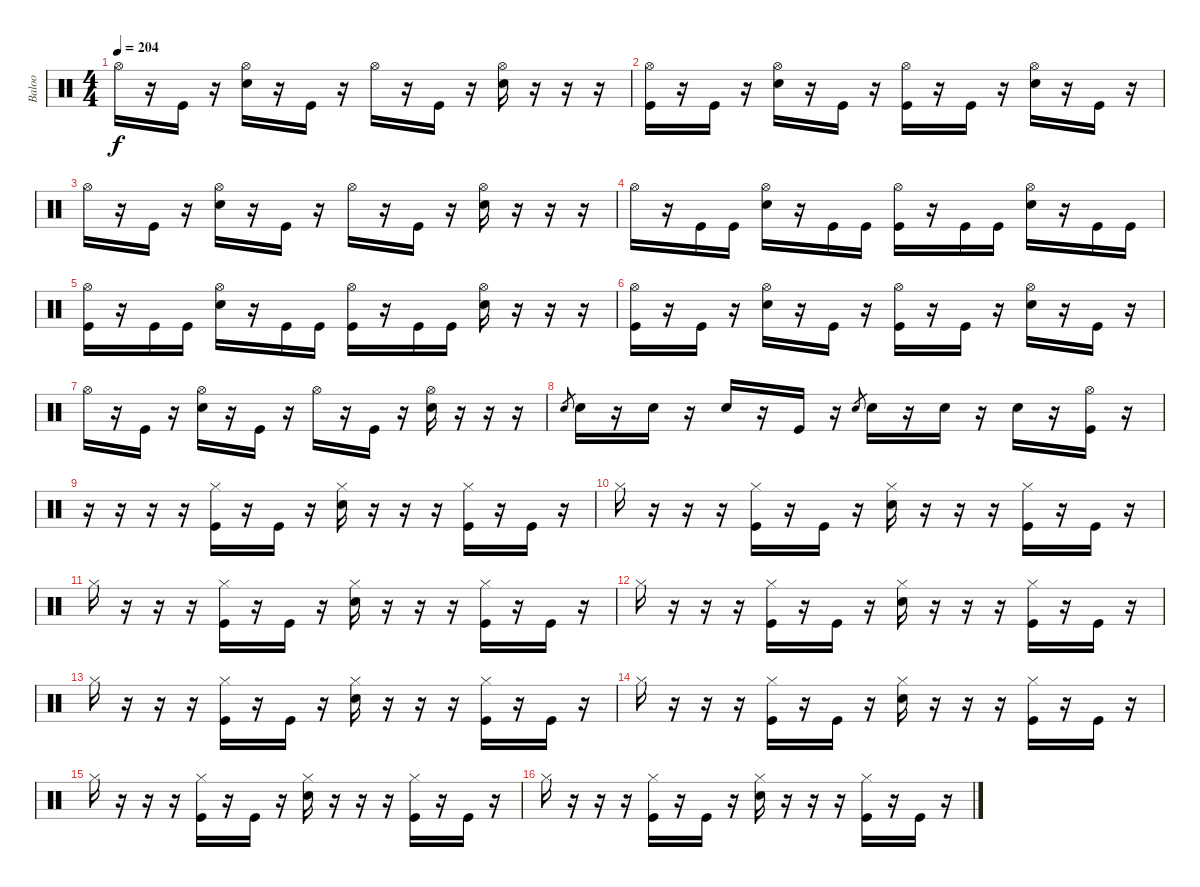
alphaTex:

\track ("Baloo" "Baloo") {instrument percussion}
\staff {score}
\articulation defaults
\ts (4 4)
\tempo 204
\clef neutral
\ks c "Hi-Hat (open)".16{dy f}
r.16 "Kick (hit)".16 r.16 ("Hi-Hat (open)" "Electric Snare (hit)").16 r.16 "Kick (hit)".16 r.16 "Hi-Hat (open)".16 r.16 "Kick (hit)".16 r.16 ("Hi-Hat (open)" "Electric Snare (hit)").16 r.16 r.16 r.16 |
("Hi-Hat (open)" "Kick (hit)").16 r.16 "Kick (hit)".16 r.16 ("Hi-Hat (open)" "Electric Snare (hit)").16 r.16 "Kick (hit)".16 r.16 ("Hi-Hat (open)" "Kick (hit)").16 r.16 "Kick (hit)".16 r.16 ("Hi-Hat (open)" "Electric Snare (hit)").16 r.16 "Kick (hit)".16 r.16 |
"Hi-Hat (open)".16 r.16 "Kick (hit)".16 r.16 ("Hi-Hat (open)" "Electric Snare (hit)").16 r.16 "Kick (hit)".16 r.16 "Hi-Hat (open)".16 r.16 "Kick (hit)".16 r.16 ("Hi-Hat (open)" "Electric Snare (hit)").16 r.16 r.16 r.16 |
"Hi-Hat (open)".16 r.16 "Kick (hit)".16 "Kick (hit)".16 ("Hi-Hat (open)" "Electric Snare (hit)").16 r.16 "Kick (hit)".16 "Kick (hit)".16 ("Hi-Hat (open)" "Kick (hit)").16 r.16 "Kick (hit)".16 "Kick (hit)".16 ("Hi-Hat (open)" "Electric Snare (hit)").16 r.16 "Kick (hit)".16 "Kick (hit)".16 |
("Hi-Hat (open)" "Kick (hit)").16 r.16 "Kick (hit)".16 "Kick (hit)".16 ("Hi-Hat (open)" "Electric Snare (hit)").16 r.16 "Kick (hit)".16 "Kick (hit)".16 ("Hi-Hat (open)" "Kick (hit)").16 r.16 "Kick (hit)".16 "Kick (hit)".16 ("Hi-Hat (open)" "Electric Snare (hit)").16 r.16 r.16 r.16 |
("Hi-Hat (open)" "Kick (hit)").16 r.16 "Kick (hit)".16 r.16 ("Hi-Hat (open)" "Electric Snare (hit)").16 r.16 "Kick (hit)".16 r.16 ("Hi-Hat (open)" "Kick (hit)").16 r.16 "Kick (hit)".16 r.16 ("Hi-Hat (open)" "Electric Snare (hit)").16 r.16 "Kick (hit)".16 r.16 |
"Hi-Hat (open)".16 r.16 "Kick (hit)".16 r.16 ("Hi-Hat (open)" "Electric Snare (hit)").16 r.16 "Kick (hit)".16 r.16 "Hi-Hat (open)".16 r.16 "Kick (hit)".16 r.16 ("Hi-Hat (open)" "Electric Snare (hit)").16 r.16 r.16 r.16 |
"Electric Snare (hit)".8{gr} "Electric Snare (hit)".16 r.16 "Electric Snare (hit)".16 r.16 "Electric Snare (hit)".16 r.16 "Kick (hit)".16 r.16 "Electric Snare (hit)".8{gr} "Electric Snare (hit)".16 r.16 "Electric Snare (hit)".16 r.16 "Electric Snare (hit)".16 r.16 ("Hi-Hat (open)" "Kick (hit)").16 r.16 |
r.16 r.16 r.16 r.16 ("Hi-Hat (closed)" "Kick (hit)").16 r.16 "Kick (hit)".16 r.16 ("Hi-Hat (closed)" "Electric Snare (hit)").16 r.16 r.16 r.16 ("Hi-Hat (closed)" "Kick (hit)").16 r.16 "Kick (hit)".16 r.16 |
"Hi-Hat (closed)".16 r.16 r.16 r.16 ("Hi-Hat (closed)" "Kick (hit)").16 r.16 "Kick (hit)".16 r.16 ("Hi-Hat (closed)" "Electric Snare (hit)").16 r.16 r.16 r.16 ("Hi-Hat (closed)" "Kick (hit)").16 r.16 "Kick (hit)".16 r.16 |
"Hi-Hat (closed)".16 r.16 r.16 r.16 ("Hi-Hat (closed)" "Kick (hit)").16 r.16 "Kick (hit)".16 r.16 ("Hi-Hat (closed)" "Electric Snare (hit)").16 r.16 r.16 r.16 ("Hi-Hat (closed)" "Kick (hit)").16 r.16 "Kick (hit)".16 r.16 |
"Hi-Hat (closed)".16 r.16 r.16 r.16 ("Hi-Hat (closed)" "Kick (hit)").16 r.16 "Kick (hit)".16 r.16 ("Hi-Hat (closed)" "Electric Snare (hit)").16 r.16 r.16 r.16 ("Hi-Hat (closed)" "Kick (hit)").16 r.16 "Kick (hit)".16 r.16 |
"Hi-Hat (closed)".16 r.16 r.16 r.16 ("Hi-Hat (closed)" "Kick (hit)").16 r.16 "Kick (hit)".16 r.16 ("Hi-Hat (closed)" "Electric Snare (hit)").16 r.16 r.16 r.16 ("Hi-Hat (closed)" "Kick (hit)").16 r.16 "Kick (hit)".16 r.16 |
"Hi-Hat (closed)".16 r.16 r.16 r.16 ("Hi-Hat (closed)" "Kick (hit)").16 r.16 "Kick (hit)".16 r.16 ("Hi-Hat (closed)" "Electric Snare (hit)").16 r.16 r.16 r.16 ("Hi-Hat (closed)" "Kick (hit)").16 r.16 "Kick (hit)".16 r.16 |
"Hi-Hat (closed)".16 r.16 r.16 r.16 ("Hi-Hat (closed)" "Kick (hit)").16 r.16 "Kick (hit)".16 r.16 ("Hi-Hat (closed)" "Electric Snare (hit)").16 r.16 r.16 r.16 ("Hi-Hat (closed)" "Kick (hit)").16 r.16 "Kick (hit)".16 r.16 |
"Hi-Hat (closed)".16 r.16 r.16 r.16 ("Hi-Hat (closed)" "Kick (hit)").16 r.16 "Kick (hit)".16 r.16 ("Hi-Hat (closed)" "Electric Snare (hit)").16 r.16 r.16 r.16 ("Hi-Hat (closed)" "Kick (hit)").16 r.16 "Kick (hit)".16 r.16
